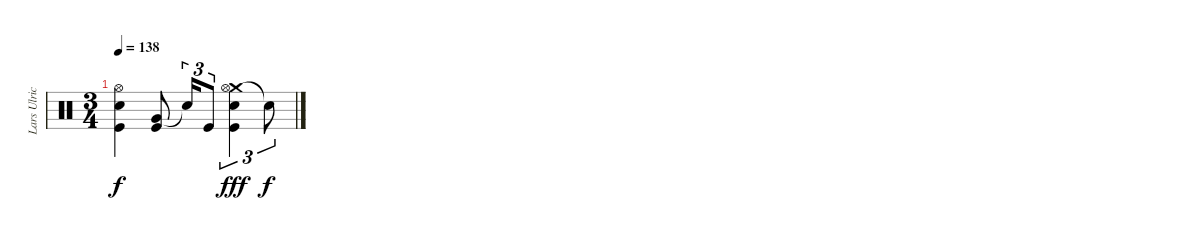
\track ("Lars Ulrich" "Lars Ulric") {instrument percussion}
\staff {score}
\articulation defaults
\ts (3 4)
\tempo 138
\clef neutral
\ks c
("Hi-Hat (open)" "Snare (hit) 2" "Kick (hit)").4{dy f} ("Very Low Tom (hit)" "Kick (hit)").8 "Snare (hit)"{t}.16{tu (3 2)} "Kick (hit)".8{tu (3 2)} ("Crash medium (hit)" "Hi-Hat (open)" "Snare (hit) 2" "Kick (hit)").4{tu (3 2) dy fff} "Snare (hit)"{t}.8{tu (3 2) dy f}
